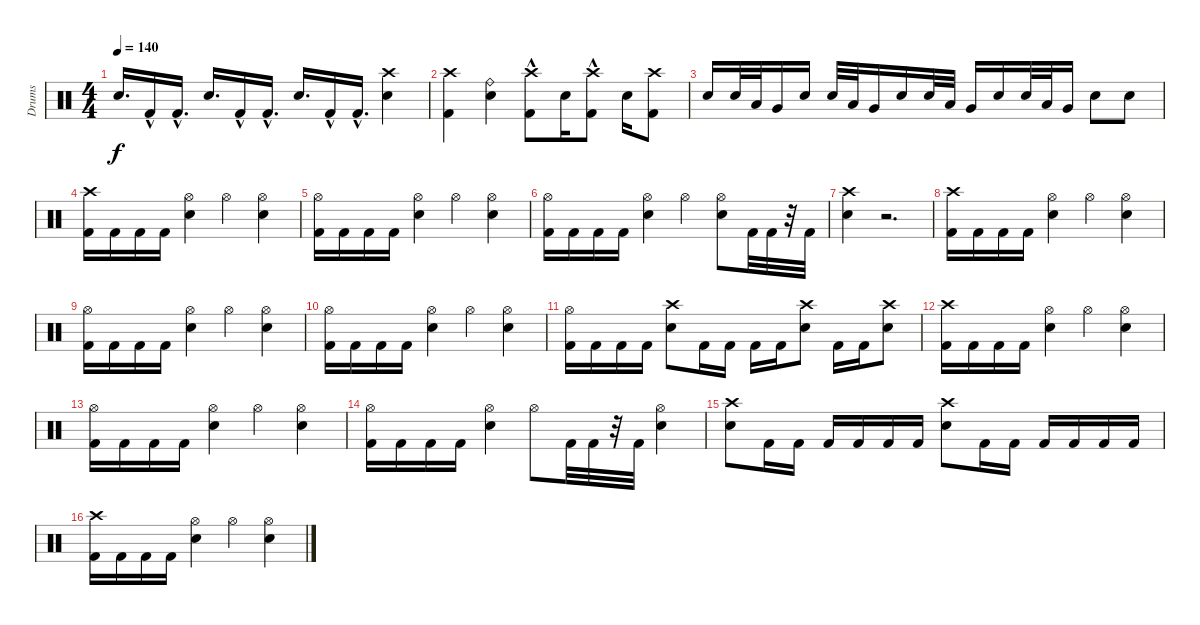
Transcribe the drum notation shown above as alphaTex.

\track ("Drums" "Drums") {instrument percussion}
\staff {score}
\articulation defaults
\ts (4 4)
\tempo 140
\clef neutral
\ks c "Snare (hit) 2".16{d dy f} "Kick (hit) 2"{hac}.16 "Kick (hit) 2"{hac}.16{d} "Snare (hit) 2".16{d} "Kick (hit) 2"{hac}.16 "Kick (hit) 2"{hac}.16{d} "Snare (hit) 2".16{d} "Kick (hit) 2"{hac}.16 "Kick (hit) 2"{hac}.16{d}
("Snare (hit) 2" "Crash high (hit)").4 |
("Kick (hit) 2" "Crash high (hit)").4 ("Snare (hit) 2" "Ride (bell)").4 ("Kick (hit) 2"{hac} "Crash high (hit)").8 "Snare (hit) 2".16 ("Kick (hit) 2"{hac} "Crash high (hit)").8 "Snare (hit) 2".16 ("Kick (hit) 2" "Crash high (hit)").8 |
"Snare (hit) 2".16 "Snare (hit) 2".32 "Low Tom (hit)".32 "Very Low Tom (hit)".16 "Snare (hit) 2".16 "Snare (hit) 2".32 "Low Tom (hit)".32 "Very Low Tom (hit)".16 "Snare (hit) 2".16 "Snare (hit) 2".32 "Low Tom (hit)".32 "Very Low Tom (hit)".16 "Snare (hit) 2".16 "Snare (hit) 2".32 "Low Tom (hit)".32 "Very Low Tom (hit)".16 "Snare (hit) 2".8 "Snare (hit) 2".8 |
("Kick (hit) 2" "Crash high (hit)").16 "Kick (hit) 2".16 "Kick (hit) 2".16 "Kick (hit) 2".16 ("Hi-Hat (open)" "Snare (hit) 2").4 "Hi-Hat (open)".4 ("Snare (hit) 2" "Hi-Hat (open)").4 |
("Hi-Hat (open)" "Kick (hit) 2").16 "Kick (hit) 2".16 "Kick (hit) 2".16 "Kick (hit) 2".16 ("Snare (hit) 2" "Hi-Hat (open)").4 "Hi-Hat (open)".4 ("Snare (hit) 2" "Hi-Hat (open)").4 |
("Kick (hit) 2" "Hi-Hat (open)").16 "Kick (hit) 2".16 "Kick (hit) 2".16 "Kick (hit) 2".16 ("Hi-Hat (open)" "Snare (hit) 2").4 "Hi-Hat (open)".4 ("Hi-Hat (open)" "Snare (hit) 2").8 "Kick (hit) 2".32 "Kick (hit) 2".32 r.32 "Kick (hit) 2".32 |
("Crash high (hit)" "Snare (hit) 2").4 r.2{d} |
("Kick (hit) 2" "Crash high (hit)").16 "Kick (hit) 2".16 "Kick (hit) 2".16 "Kick (hit) 2".16 ("Snare (hit) 2" "Hi-Hat (open)").4 "Hi-Hat (open)".4 ("Hi-Hat (open)" "Snare (hit) 2").4 |
("Hi-Hat (open)" "Kick (hit) 2").16 "Kick (hit) 2".16 "Kick (hit) 2".16 "Kick (hit) 2".16 ("Snare (hit) 2" "Hi-Hat (open)").4 "Hi-Hat (open)".4 ("Snare (hit) 2" "Hi-Hat (open)").4 |
("Hi-Hat (open)" "Kick (hit) 2").16 "Kick (hit) 2".16 "Kick (hit) 2".16 "Kick (hit) 2".16 ("Snare (hit) 2" "Hi-Hat (open)").4 "Hi-Hat (open)".4 ("Snare (hit) 2" "Hi-Hat (open)").4 |
("Hi-Hat (open)" "Kick (hit) 2").16 "Kick (hit) 2".16 "Kick (hit) 2".16 "Kick (hit) 2".16 ("Crash high (hit)" "Snare (hit) 2").8 "Kick (hit) 2".16 "Kick (hit) 2".16 "Kick (hit) 2".16 "Kick (hit) 2".16 ("Snare (hit) 2" "Crash high (hit)").8 "Kick (hit) 2".16 "Kick (hit) 2".16 ("Snare (hit) 2" "Crash high (hit)").8 |
("Crash high (hit)" "Kick (hit) 2").16 "Kick (hit) 2".16 "Kick (hit) 2".16 "Kick (hit) 2".16 ("Hi-Hat (open)" "Snare (hit) 2").4 "Hi-Hat (open)".4 ("Hi-Hat (open)" "Snare (hit) 2").4 |
("Kick (hit) 2" "Hi-Hat (open)").16 "Kick (hit) 2".16 "Kick (hit) 2".16 "Kick (hit) 2".16 ("Hi-Hat (open)" "Snare (hit) 2").4 "Hi-Hat (open)".4 ("Hi-Hat (open)" "Snare (hit) 2").4 |
("Kick (hit) 2" "Hi-Hat (open)").16 "Kick (hit) 2".16 "Kick (hit) 2".16 "Kick (hit) 2".16 ("Snare (hit) 2" "Hi-Hat (open)").4 "Hi-Hat (open)".8 "Kick (hit) 2".32 "Kick (hit) 2".32 r.32 "Kick (hit) 2".32 ("Hi-Hat (open)" "Snare (hit) 2").4 |
("Crash high (hit)" "Snare (hit) 2").8 "Kick (hit) 2".16 "Kick (hit) 2".16 "Kick (hit) 2".16 "Kick (hit) 2".16 "Kick (hit) 2".16 "Kick (hit) 2".16 ("Crash high (hit)" "Snare (hit) 2").8 "Kick (hit) 2".16 "Kick (hit) 2".16 "Kick (hit) 2".16 "Kick (hit) 2".16 "Kick (hit) 2".16 "Kick (hit) 2".16 |
("Kick (hit) 2" "Crash high (hit)").16 "Kick (hit) 2".16 "Kick (hit) 2".16 "Kick (hit) 2".16 ("Snare (hit) 2" "Hi-Hat (open)").4 "Hi-Hat (open)".4 ("Snare (hit) 2" "Hi-Hat (open)").4
